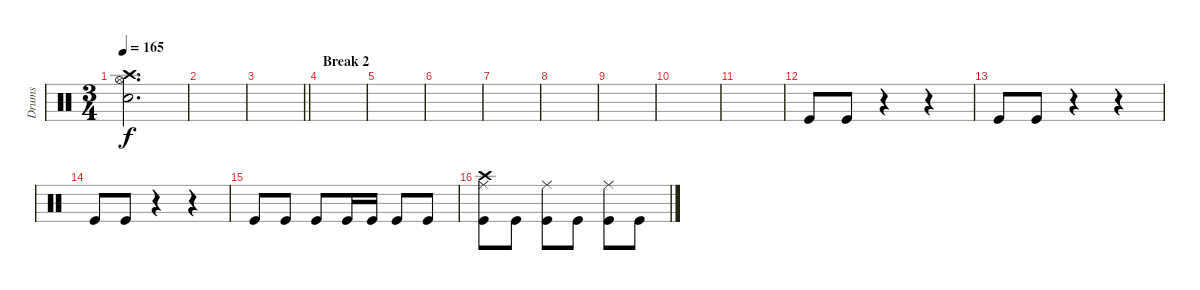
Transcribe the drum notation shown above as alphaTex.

\track ("Drums" "Drums") {instrument percussion}
\staff {score}
\articulation defaults
\ts (3 4)
\tempo 165
\clef neutral
\ks c
("Crash high (hit)" "Hi-Hat (open)" "Snare (hit) 2").2{d dy f} |
|
\barLineRight lightlight
|
\section ("" "Break 2")
|
|
|
|
|
|
|
|
"Kick (hit)".8 "Kick (hit)".8 r.4 r.4 |
"Kick (hit)".8 "Kick (hit)".8 r.4 r.4 |
"Kick (hit)".8 "Kick (hit)".8 r.4 r.4 |
"Kick (hit)".8 "Kick (hit)".8 "Kick (hit)".8 "Kick (hit)".16 "Kick (hit)".16 "Kick (hit)".8 "Kick (hit)".8 |
("Ride (middle)" "Crash high (hit)" "Kick (hit)").8 "Kick (hit)".8 ("Ride (middle)" "Kick (hit)").8 "Kick (hit)".8 ("Ride (middle)" "Kick (hit)").8 "Kick (hit)".8
